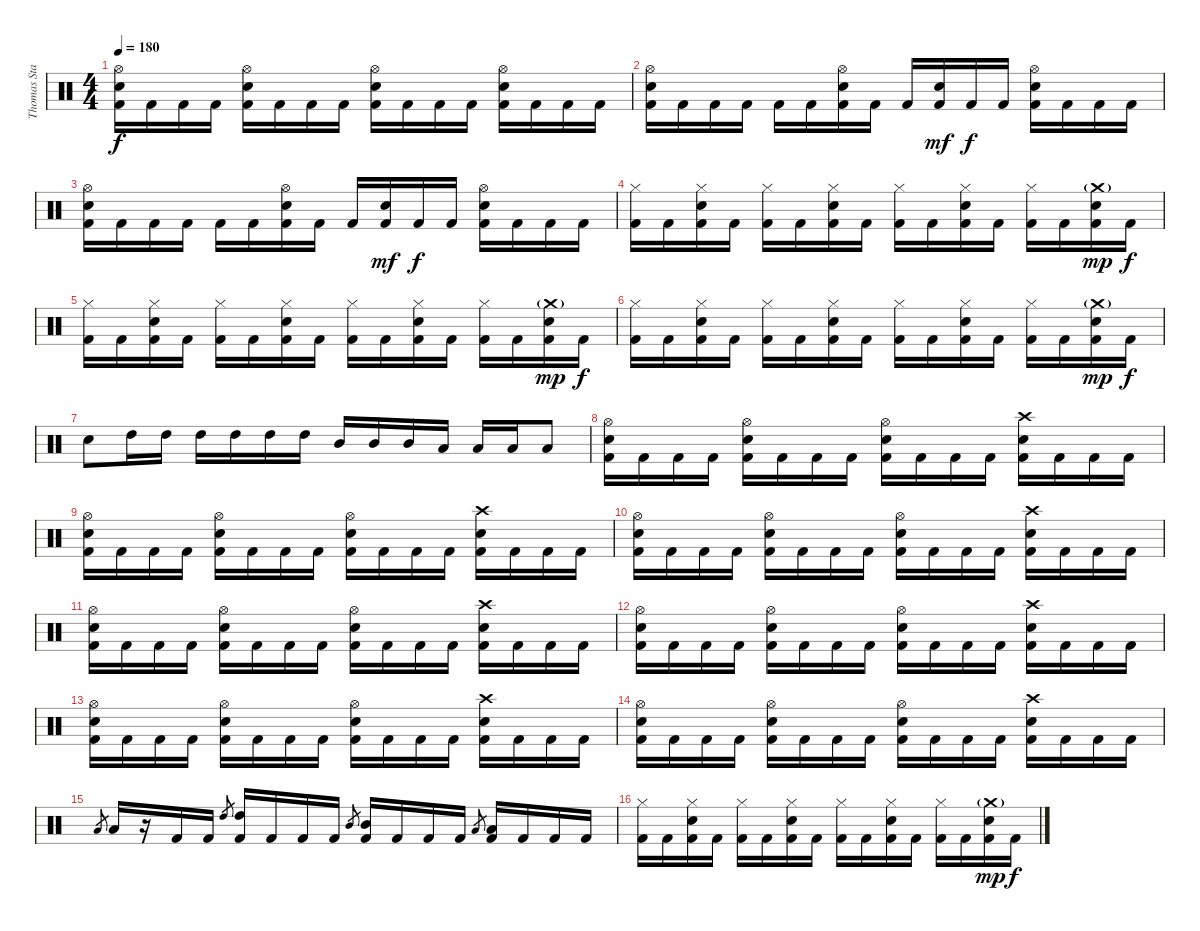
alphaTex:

\track ("Thomas Stauch" "Thomas Sta") {instrument percussion}
\staff {score}
\articulation defaults
\ts (4 4)
\tempo 180
\clef neutral
\ks c
("Hi-Hat (open)" "Electric Snare (hit)" "Kick (hit) 2").16{dy f} "Kick (hit) 2".16 "Kick (hit) 2".16 "Kick (hit) 2".16 ("Hi-Hat (open)" "Electric Snare (hit)" "Kick (hit) 2").16 "Kick (hit) 2".16 "Kick (hit) 2".16 "Kick (hit) 2".16 ("Hi-Hat (open)" "Electric Snare (hit)" "Kick (hit) 2").16 "Kick (hit) 2".16 "Kick (hit) 2".16 "Kick (hit) 2".16 ("Hi-Hat (open)" "Electric Snare (hit)" "Kick (hit) 2").16 "Kick (hit) 2".16 "Kick (hit) 2".16 "Kick (hit) 2".16 |
("Hi-Hat (open)" "Electric Snare (hit)" "Kick (hit) 2").16 "Kick (hit) 2".16 "Kick (hit) 2".16 "Kick (hit) 2".16 "Kick (hit) 2".16 "Kick (hit) 2".16 ("Hi-Hat (open)" "Electric Snare (hit)" "Kick (hit) 2").16 "Kick (hit) 2".16 "Kick (hit) 2".16 ("Electric Snare (hit)" "Kick (hit) 2").16{dy mf} "Kick (hit) 2".16{dy f} "Kick (hit) 2".16 ("Hi-Hat (open)" "Electric Snare (hit)" "Kick (hit) 2").16 "Kick (hit) 2".16 "Kick (hit) 2".16 "Kick (hit) 2".16 |
("Hi-Hat (open)" "Electric Snare (hit)" "Kick (hit) 2").16 "Kick (hit) 2".16 "Kick (hit) 2".16 "Kick (hit) 2".16 "Kick (hit) 2".16 "Kick (hit) 2".16 ("Hi-Hat (open)" "Electric Snare (hit)" "Kick (hit) 2").16 "Kick (hit) 2".16 "Kick (hit) 2".16 ("Electric Snare (hit)" "Kick (hit) 2").16{dy mf} "Kick (hit) 2".16{dy f} "Kick (hit) 2".16 ("Hi-Hat (open)" "Electric Snare (hit)" "Kick (hit) 2").16 "Kick (hit) 2".16 "Kick (hit) 2".16 "Kick (hit) 2".16 |
("Hi-Hat (closed)" "Kick (hit) 2").16 "Kick (hit) 2".16 ("Hi-Hat (closed)" "Electric Snare (hit)" "Kick (hit) 2").16 "Kick (hit) 2".16 ("Hi-Hat (closed)" "Kick (hit) 2").16 "Kick (hit) 2".16 ("Hi-Hat (closed)" "Electric Snare (hit)" "Kick (hit) 2").16 "Kick (hit) 2".16 ("Hi-Hat (closed)" "Kick (hit) 2").16 "Kick (hit) 2".16 ("Hi-Hat (closed)" "Electric Snare (hit)" "Kick (hit) 2").16 "Kick (hit) 2".16 ("Hi-Hat (closed)" "Kick (hit) 2").16 "Kick (hit) 2".16 ("Crash medium (hit)"{g} "Electric Snare (hit)" "Kick (hit) 2").16{dy mp} "Kick (hit) 2".16{dy f} |
("Hi-Hat (closed)" "Kick (hit) 2").16 "Kick (hit) 2".16 ("Hi-Hat (closed)" "Electric Snare (hit)" "Kick (hit) 2").16 "Kick (hit) 2".16 ("Hi-Hat (closed)" "Kick (hit) 2").16 "Kick (hit) 2".16 ("Hi-Hat (closed)" "Electric Snare (hit)" "Kick (hit) 2").16 "Kick (hit) 2".16 ("Hi-Hat (closed)" "Kick (hit) 2").16 "Kick (hit) 2".16 ("Hi-Hat (closed)" "Electric Snare (hit)" "Kick (hit) 2").16 "Kick (hit) 2".16 ("Hi-Hat (closed)" "Kick (hit) 2").16 "Kick (hit) 2".16 ("Crash medium (hit)"{g} "Electric Snare (hit)" "Kick (hit) 2").16{dy mp} "Kick (hit) 2".16{dy f} |
("Hi-Hat (closed)" "Kick (hit) 2").16 "Kick (hit) 2".16 ("Hi-Hat (closed)" "Electric Snare (hit)" "Kick (hit) 2").16 "Kick (hit) 2".16 ("Hi-Hat (closed)" "Kick (hit) 2").16 "Kick (hit) 2".16 ("Hi-Hat (closed)" "Electric Snare (hit)" "Kick (hit) 2").16 "Kick (hit) 2".16 ("Hi-Hat (closed)" "Kick (hit) 2").16 "Kick (hit) 2".16 ("Hi-Hat (closed)" "Electric Snare (hit)" "Kick (hit) 2").16 "Kick (hit) 2".16 ("Hi-Hat (closed)" "Kick (hit) 2").16 "Kick (hit) 2".16 ("Crash medium (hit)"{g} "Electric Snare (hit)" "Kick (hit) 2").16{dy mp} "Kick (hit) 2".16{dy f} |
"Electric Snare (hit)".8 "High Tom (hit)".16 "High Tom (hit)".16 "High Tom (hit)".16 "High Tom (hit)".16 "High Tom (hit)".16 "High Tom (hit)".16 "Mid Tom (hit)".16 "Mid Tom (hit)".16 "Mid Tom (hit)".16 "Low Tom (hit)".16 "Low Tom (hit)".16 "Low Tom (hit)".16 "Low Tom (hit)".8 |
("Hi-Hat (open)" "Electric Snare (hit)" "Kick (hit) 2").16 "Kick (hit) 2".16 "Kick (hit) 2".16 "Kick (hit) 2".16 ("Hi-Hat (open)" "Electric Snare (hit)" "Kick (hit) 2").16 "Kick (hit) 2".16 "Kick (hit) 2".16 "Kick (hit) 2".16 ("Hi-Hat (open)" "Electric Snare (hit)" "Kick (hit) 2").16 "Kick (hit) 2".16 "Kick (hit) 2".16 "Kick (hit) 2".16 ("Crash high (hit)" "Electric Snare (hit)" "Kick (hit) 2").16 "Kick (hit) 2".16 "Kick (hit) 2".16 "Kick (hit) 2".16 |
("Hi-Hat (open)" "Electric Snare (hit)" "Kick (hit) 2").16 "Kick (hit) 2".16 "Kick (hit) 2".16 "Kick (hit) 2".16 ("Hi-Hat (open)" "Electric Snare (hit)" "Kick (hit) 2").16 "Kick (hit) 2".16 "Kick (hit) 2".16 "Kick (hit) 2".16 ("Hi-Hat (open)" "Electric Snare (hit)" "Kick (hit) 2").16 "Kick (hit) 2".16 "Kick (hit) 2".16 "Kick (hit) 2".16 ("Crash high (hit)" "Electric Snare (hit)" "Kick (hit) 2").16 "Kick (hit) 2".16 "Kick (hit) 2".16 "Kick (hit) 2".16 |
("Hi-Hat (open)" "Electric Snare (hit)" "Kick (hit) 2").16 "Kick (hit) 2".16 "Kick (hit) 2".16 "Kick (hit) 2".16 ("Hi-Hat (open)" "Electric Snare (hit)" "Kick (hit) 2").16 "Kick (hit) 2".16 "Kick (hit) 2".16 "Kick (hit) 2".16 ("Hi-Hat (open)" "Electric Snare (hit)" "Kick (hit) 2").16 "Kick (hit) 2".16 "Kick (hit) 2".16 "Kick (hit) 2".16 ("Crash high (hit)" "Electric Snare (hit)" "Kick (hit) 2").16 "Kick (hit) 2".16 "Kick (hit) 2".16 "Kick (hit) 2".16 |
("Hi-Hat (open)" "Electric Snare (hit)" "Kick (hit) 2").16 "Kick (hit) 2".16 "Kick (hit) 2".16 "Kick (hit) 2".16 ("Hi-Hat (open)" "Electric Snare (hit)" "Kick (hit) 2").16 "Kick (hit) 2".16 "Kick (hit) 2".16 "Kick (hit) 2".16 ("Hi-Hat (open)" "Electric Snare (hit)" "Kick (hit) 2").16 "Kick (hit) 2".16 "Kick (hit) 2".16 "Kick (hit) 2".16 ("Crash high (hit)" "Electric Snare (hit)" "Kick (hit) 2").16 "Kick (hit) 2".16 "Kick (hit) 2".16 "Kick (hit) 2".16 |
("Hi-Hat (open)" "Electric Snare (hit)" "Kick (hit) 2").16 "Kick (hit) 2".16 "Kick (hit) 2".16 "Kick (hit) 2".16 ("Hi-Hat (open)" "Electric Snare (hit)" "Kick (hit) 2").16 "Kick (hit) 2".16 "Kick (hit) 2".16 "Kick (hit) 2".16 ("Hi-Hat (open)" "Electric Snare (hit)" "Kick (hit) 2").16 "Kick (hit) 2".16 "Kick (hit) 2".16 "Kick (hit) 2".16 ("Crash high (hit)" "Electric Snare (hit)" "Kick (hit) 2").16 "Kick (hit) 2".16 "Kick (hit) 2".16 "Kick (hit) 2".16 |
("Hi-Hat (open)" "Electric Snare (hit)" "Kick (hit) 2").16 "Kick (hit) 2".16 "Kick (hit) 2".16 "Kick (hit) 2".16 ("Hi-Hat (open)" "Electric Snare (hit)" "Kick (hit) 2").16 "Kick (hit) 2".16 "Kick (hit) 2".16 "Kick (hit) 2".16 ("Hi-Hat (open)" "Electric Snare (hit)" "Kick (hit) 2").16 "Kick (hit) 2".16 "Kick (hit) 2".16 "Kick (hit) 2".16 ("Crash high (hit)" "Electric Snare (hit)" "Kick (hit) 2").16 "Kick (hit) 2".16 "Kick (hit) 2".16 "Kick (hit) 2".16 |
("Hi-Hat (open)" "Electric Snare (hit)" "Kick (hit) 2").16 "Kick (hit) 2".16 "Kick (hit) 2".16 "Kick (hit) 2".16 ("Hi-Hat (open)" "Electric Snare (hit)" "Kick (hit) 2").16 "Kick (hit) 2".16 "Kick (hit) 2".16 "Kick (hit) 2".16 ("Hi-Hat (open)" "Electric Snare (hit)" "Kick (hit) 2").16 "Kick (hit) 2".16 "Kick (hit) 2".16 "Kick (hit) 2".16 ("Crash high (hit)" "Electric Snare (hit)" "Kick (hit) 2").16 "Kick (hit) 2".16 "Kick (hit) 2".16 "Kick (hit) 2".16 |
"Low Floor Tom (hit)".8{gr} "Low Floor Tom (hit)".16 r.16 "Kick (hit) 2".16 "Kick (hit) 2".16 "High Tom (hit)".8{gr} ("High Tom (hit)" "Kick (hit) 2").16 "Kick (hit) 2".16 "Kick (hit) 2".16 "Kick (hit) 2".16 "Mid Tom (hit)".8{gr} ("Mid Tom (hit)" "Kick (hit) 2").16 "Kick (hit) 2".16 "Kick (hit) 2".16 "Kick (hit) 2".16 "Low Tom (hit)".8{gr} ("Low Tom (hit)" "Kick (hit) 2").16 "Kick (hit) 2".16 "Kick (hit) 2".16 "Kick (hit) 2".16 |
("Hi-Hat (closed)" "Kick (hit) 2").16 "Kick (hit) 2".16 ("Hi-Hat (closed)" "Electric Snare (hit)" "Kick (hit) 2").16 "Kick (hit) 2".16 ("Hi-Hat (closed)" "Kick (hit) 2").16 "Kick (hit) 2".16 ("Hi-Hat (closed)" "Electric Snare (hit)" "Kick (hit) 2").16 "Kick (hit) 2".16 ("Hi-Hat (closed)" "Kick (hit) 2").16 "Kick (hit) 2".16 ("Hi-Hat (closed)" "Electric Snare (hit)" "Kick (hit) 2").16 "Kick (hit) 2".16 ("Hi-Hat (closed)" "Kick (hit) 2").16 "Kick (hit) 2".16 ("Crash medium (hit)"{g} "Electric Snare (hit)" "Kick (hit) 2").16{dy mp} "Kick (hit) 2".16{dy f}
